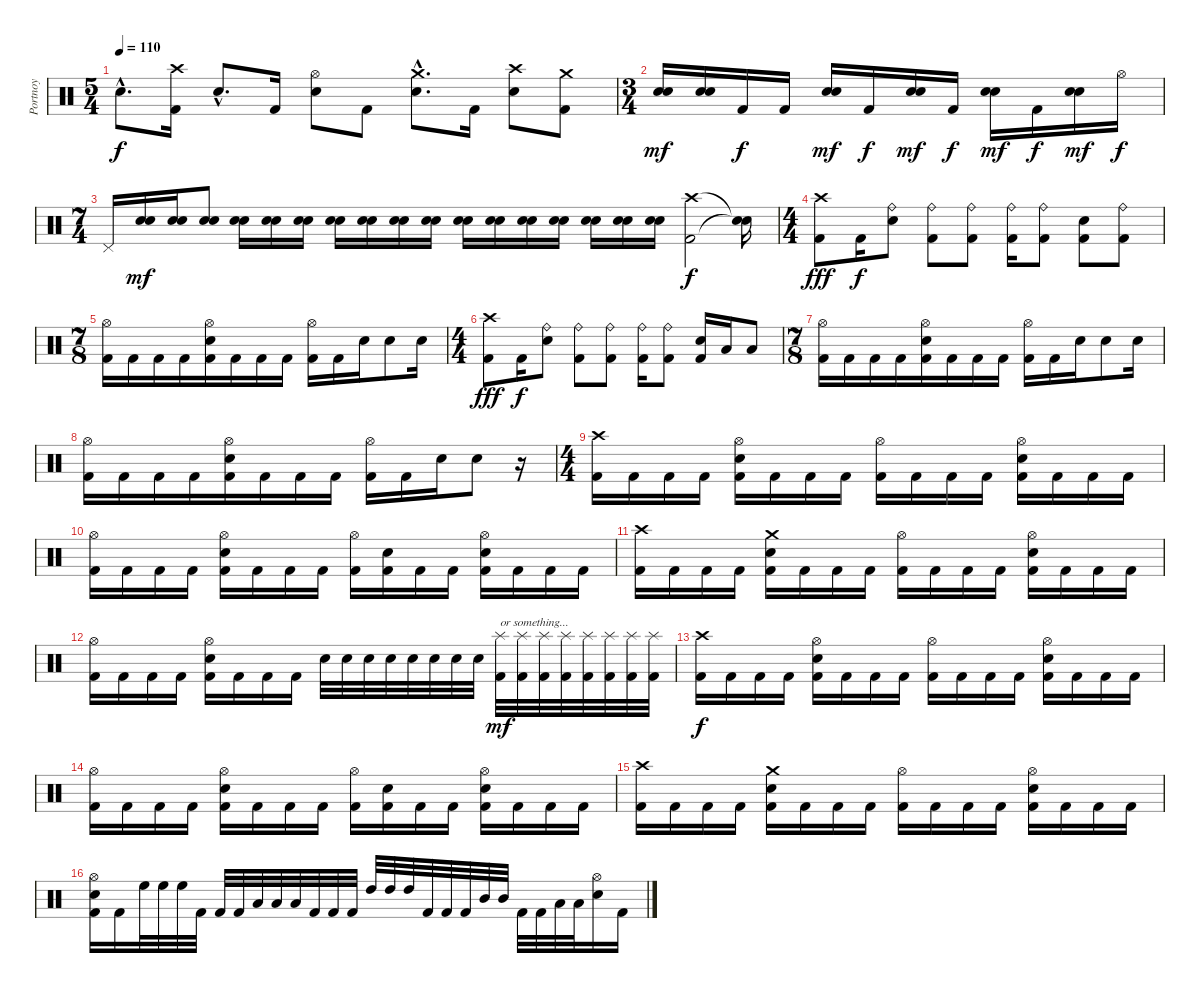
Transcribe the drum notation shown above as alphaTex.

\track ("Portnoy" "Portnoy") {instrument percussion}
\staff {score}
\articulation defaults
\ts (5 4)
\tempo 110
\clef neutral
\ks c "Snare (hit) 2"{hac}.8{d dy f}
("Kick (hit) 2" "Crash high (hit)").16 "Snare (hit) 2"{hac}.8{d} "Kick (hit) 2".16 ("Hi-Hat (open)" "Snare (hit) 2").8 "Kick (hit) 2".8 ("Crash medium (hit)"{hac} "Snare (hit) 2"{hac}).8{d} "Kick (hit) 2".16 ("Crash high (hit)" "Snare (hit) 2").8 ("Kick (hit) 2" "Crash medium (hit)").8 |
\ts (3 4)
("Electric Snare (hit)" "Snare (hit) 2").16{dy mf volume 12} ("Electric Snare (hit)" "Snare (hit) 2").16 "Kick (hit) 2".16{dy f} "Kick (hit) 2".16 ("Electric Snare (hit)" "Snare (hit) 2").16{dy mf} "Kick (hit) 2".16{dy f} ("Electric Snare (hit)" "Snare (hit) 2").16{dy mf} "Kick (hit) 2".16{dy f} ("Electric Snare (hit)" "Snare (hit) 2").16{dy mf} "Kick (hit) 2".16{dy f} ("Electric Snare (hit)" "Snare (hit) 2").16{dy mf} "Hi-Hat (open)".16{dy f} |
\ts (7 4)
"Pedal Hi-Hat (hit)".16 ("Electric Snare (hit)" "Snare (hit) 2").16{dy mf} ("Electric Snare (hit)" "Snare (hit) 2").16 ("Electric Snare (hit)" "Snare (hit) 2").8 ("Electric Snare (hit)" "Snare (hit) 2").16 ("Electric Snare (hit)" "Snare (hit) 2").16 ("Electric Snare (hit)" "Snare (hit) 2").16 ("Electric Snare (hit)" "Snare (hit) 2").16 ("Electric Snare (hit)" "Snare (hit) 2").16 ("Electric Snare (hit)" "Snare (hit) 2").16 ("Electric Snare (hit)" "Snare (hit) 2").16 ("Electric Snare (hit)" "Snare (hit) 2").16 ("Electric Snare (hit)" "Snare (hit) 2").16 ("Electric Snare (hit)" "Snare (hit) 2").16 ("Electric Snare (hit)" "Snare (hit) 2").16 ("Electric Snare (hit)" "Snare (hit) 2").16 ("Electric Snare (hit)" "Snare (hit) 2").16 ("Electric Snare (hit)" "Snare (hit) 2").16 ("Kick (hit) 2" "Crash high (hit)").2{dy f volume 14} ("Snare (hit)"{t} "Snare (hit)"{t}).16 |
\ts (4 4)
("Kick (hit) 2" "Crash high (hit)").8{dy fff} "Kick (hit) 2".16{dy f} ("Ride (bell)" "Snare (hit) 2").8 ("Kick (hit) 2" "Ride (bell)").8 ("Kick (hit) 2" "Ride (bell)").8 ("Kick (hit) 2" "Ride (bell)").16 ("Kick (hit) 2" "Ride (bell)").8 ("Kick (hit) 2" "Snare (hit) 2").8 ("Kick (hit) 2" "Ride (bell)").8 |
\ts (7 8)
("Kick (hit) 2" "Hi-Hat (open)").16 "Kick (hit) 2".16 "Kick (hit) 2".16 "Kick (hit) 2".16 ("Kick (hit) 2" "Hi-Hat (open)" "Snare (hit) 2").16 "Kick (hit) 2".16 "Kick (hit) 2".16 "Kick (hit) 2".16 ("Kick (hit) 2" "Hi-Hat (open)").16 "Kick (hit) 2".16 "Snare (hit) 2".16 "Snare (hit) 2".8 "Snare (hit) 2".16 |
\ts (4 4)
("Kick (hit) 2" "Crash high (hit)").8{dy fff} "Kick (hit) 2".16{dy f} ("Ride (bell)" "Snare (hit) 2").8 ("Kick (hit) 2" "Ride (bell)").8 ("Kick (hit) 2" "Ride (bell)").8 ("Kick (hit) 2" "Ride (bell)").16 ("Kick (hit) 2" "Ride (bell)").8 ("Kick (hit) 2" "Snare (hit) 2").16 "Low Tom (hit)".16 "Low Tom (hit)".8 |
\ts (7 8)
("Kick (hit) 2" "Hi-Hat (open)").16 "Kick (hit) 2".16 "Kick (hit) 2".16 "Kick (hit) 2".16 ("Kick (hit) 2" "Hi-Hat (open)" "Snare (hit) 2").16 "Kick (hit) 2".16 "Kick (hit) 2".16 "Kick (hit) 2".16 ("Kick (hit) 2" "Hi-Hat (open)").16 "Kick (hit) 2".16 "Snare (hit) 2".16 "Snare (hit) 2".8 "Snare (hit) 2".16 |
("Kick (hit) 2" "Hi-Hat (open)").16 "Kick (hit) 2".16 "Kick (hit) 2".16 "Kick (hit) 2".16 ("Kick (hit) 2" "Hi-Hat (open)" "Snare (hit) 2").16 "Kick (hit) 2".16 "Kick (hit) 2".16 "Kick (hit) 2".16 ("Kick (hit) 2" "Hi-Hat (open)").16 "Kick (hit) 2".16 "Snare (hit) 2".16 "Snare (hit) 2".8 r.16 |
\ts (4 4)
("Kick (hit) 2" "Crash high (hit)").16 "Kick (hit) 2".16 "Kick (hit) 2".16 "Kick (hit) 2".16 ("Kick (hit) 2" "Hi-Hat (open)" "Snare (hit) 2").16 "Kick (hit) 2".16 "Kick (hit) 2".16 "Kick (hit) 2".16 ("Kick (hit) 2" "Hi-Hat (open)").16 "Kick (hit) 2".16 "Kick (hit) 2".16 "Kick (hit) 2".16 ("Kick (hit) 2" "Hi-Hat (open)" "Snare (hit) 2").16 "Kick (hit) 2".16 "Kick (hit) 2".16 "Kick (hit) 2".16 |
("Kick (hit) 2" "Hi-Hat (open)").16 "Kick (hit) 2".16 "Kick (hit) 2".16 "Kick (hit) 2".16 ("Kick (hit) 2" "Hi-Hat (open)" "Snare (hit) 2").16 "Kick (hit) 2".16 "Kick (hit) 2".16 "Kick (hit) 2".16 ("Kick (hit) 2" "Hi-Hat (open)").16 ("Kick (hit) 2" "Snare (hit) 2").16 "Kick (hit) 2".16 "Kick (hit) 2".16 ("Kick (hit) 2" "Hi-Hat (open)" "Snare (hit) 2").16 "Kick (hit) 2".16 "Kick (hit) 2".16 "Kick (hit) 2".16 |
("Kick (hit) 2" "Crash high (hit)").16 "Kick (hit) 2".16 "Kick (hit) 2".16 "Kick (hit) 2".16 ("Kick (hit) 2" "Crash medium (hit)" "Snare (hit) 2").16 "Kick (hit) 2".16 "Kick (hit) 2".16 "Kick (hit) 2".16 ("Kick (hit) 2" "Hi-Hat (open)").16 "Kick (hit) 2".16 "Kick (hit) 2".16 "Kick (hit) 2".16 ("Kick (hit) 2" "Hi-Hat (open)" "Snare (hit) 2").16 "Kick (hit) 2".16 "Kick (hit) 2".16 "Kick (hit) 2".16 |
("Kick (hit) 2" "Hi-Hat (open)").16 "Kick (hit) 2".16 "Kick (hit) 2".16 "Kick (hit) 2".16 ("Kick (hit) 2" "Hi-Hat (open)" "Snare (hit) 2").16 "Kick (hit) 2".16 "Kick (hit) 2".16 "Kick (hit) 2".16 "Snare (hit) 2".32 "Snare (hit) 2".32 "Snare (hit) 2".32 "Snare (hit) 2".32 "Snare (hit) 2".32 "Snare (hit) 2".32 "Snare (hit) 2".32 "Snare (hit) 2".32 ("Kick (hit) 2" "Splash (hit)").32{txt "or something..." dy mf} ("Kick (hit) 2" "Splash (hit)").32 ("Kick (hit) 2" "Splash (hit)").32 ("Kick (hit) 2" "Splash (hit)").32 ("Kick (hit) 2" "Splash (hit)").32 ("Kick (hit) 2" "Splash (hit)").32 ("Kick (hit) 2" "Splash (hit)").32 ("Kick (hit) 2" "Splash (hit)").32 |
("Kick (hit) 2" "Crash high (hit)").16{dy f} "Kick (hit) 2".16 "Kick (hit) 2".16 "Kick (hit) 2".16 ("Kick (hit) 2" "Hi-Hat (open)" "Snare (hit) 2").16 "Kick (hit) 2".16 "Kick (hit) 2".16 "Kick (hit) 2".16 ("Kick (hit) 2" "Hi-Hat (open)").16 "Kick (hit) 2".16 "Kick (hit) 2".16 "Kick (hit) 2".16 ("Kick (hit) 2" "Hi-Hat (open)" "Snare (hit) 2").16 "Kick (hit) 2".16 "Kick (hit) 2".16 "Kick (hit) 2".16 |
("Kick (hit) 2" "Hi-Hat (open)").16 "Kick (hit) 2".16 "Kick (hit) 2".16 "Kick (hit) 2".16 ("Kick (hit) 2" "Hi-Hat (open)" "Snare (hit) 2").16 "Kick (hit) 2".16 "Kick (hit) 2".16 "Kick (hit) 2".16 ("Kick (hit) 2" "Hi-Hat (open)").16 ("Kick (hit) 2" "Snare (hit) 2").16 "Kick (hit) 2".16 "Kick (hit) 2".16 ("Kick (hit) 2" "Hi-Hat (open)" "Snare (hit) 2").16 "Kick (hit) 2".16 "Kick (hit) 2".16 "Kick (hit) 2".16 |
("Kick (hit) 2" "Crash high (hit)").16 "Kick (hit) 2".16 "Kick (hit) 2".16 "Kick (hit) 2".16 ("Kick (hit) 2" "Crash medium (hit)" "Snare (hit) 2").16 "Kick (hit) 2".16 "Kick (hit) 2".16 "Kick (hit) 2".16 ("Kick (hit) 2" "Hi-Hat (open)").16 "Kick (hit) 2".16 "Kick (hit) 2".16 "Kick (hit) 2".16 ("Kick (hit) 2" "Hi-Hat (open)" "Snare (hit) 2").16 "Kick (hit) 2".16 "Kick (hit) 2".16 "Kick (hit) 2".16 |
("Kick (hit) 2" "Hi-Hat (open)" "Snare (hit) 2").16 "Kick (hit) 2".16 "High Floor Tom (hit)".32 "High Floor Tom (hit)".32 "High Floor Tom (hit)".32 "Kick (hit) 2".32 "Kick (hit) 2".32 "Kick (hit) 2".32 "Low Tom (hit)".32 "Low Tom (hit)".32 "Low Tom (hit)".32 "Kick (hit) 2".32 "Kick (hit) 2".32 "Kick (hit) 2".32 "High Tom (hit)".32 "High Tom (hit)".32 "High Tom (hit)".32 "Kick (hit) 2".32 "Kick (hit) 2".32 "Kick (hit) 2".32 "Mid Tom (hit)".32 "Mid Tom (hit)".32 "Kick (hit) 2".32 "Kick (hit) 2".32 "Low Tom (hit)".32 "Low Tom (hit)".32 ("Hi-Hat (open)" "Snare (hit) 2").16 "Kick (hit) 2".16
